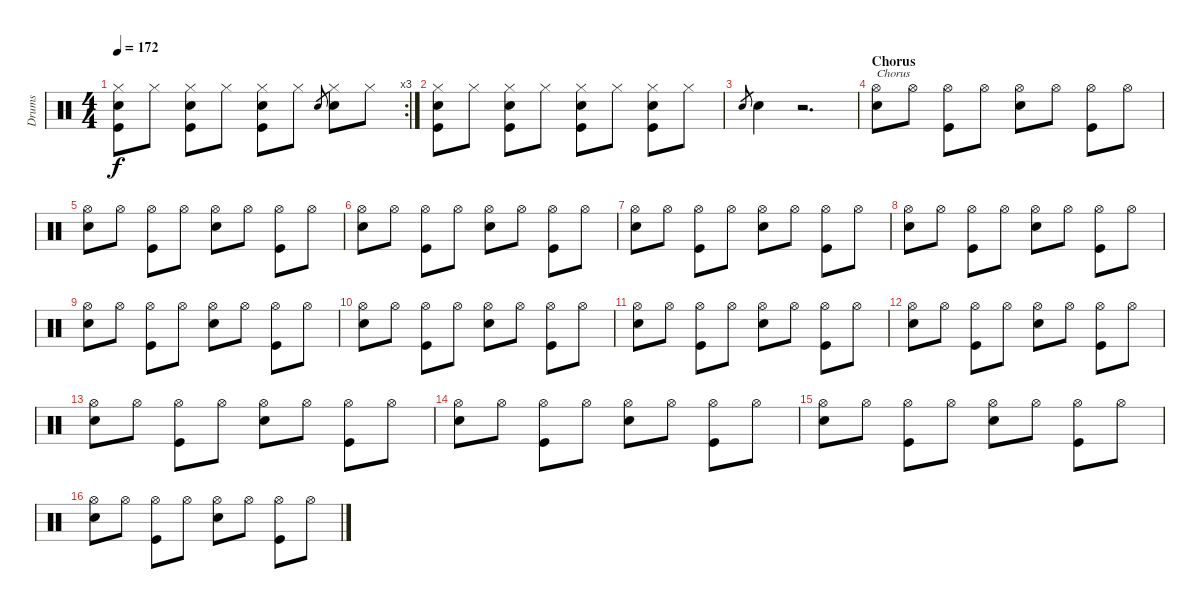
\track ("Drums" "Drums") {instrument percussion}
\staff {score}
\articulation defaults
\rc 3
\ts (4 4)
\tempo 172
\clef neutral
\ks c
("Kick (hit)" "Snare (hit) 2" "Hi-Hat (closed)").8{dy f} "Hi-Hat (closed)".8 ("Kick (hit)" "Snare (hit) 2" "Hi-Hat (closed)").8 "Hi-Hat (closed)".8 ("Kick (hit)" "Snare (hit) 2" "Hi-Hat (closed)").8 "Hi-Hat (closed)".8 "Snare (hit) 2".8{gr} ("Snare (hit) 2" "Hi-Hat (closed)").8 "Hi-Hat (closed)".8 |
("Kick (hit)" "Snare (hit) 2" "Hi-Hat (closed)").8 "Hi-Hat (closed)".8 ("Kick (hit)" "Snare (hit) 2" "Hi-Hat (closed)").8 "Hi-Hat (closed)".8 ("Kick (hit)" "Snare (hit) 2" "Hi-Hat (closed)").8 "Hi-Hat (closed)".8 ("Kick (hit)" "Snare (hit) 2" "Hi-Hat (closed)").8 "Hi-Hat (closed)".8 |
"Snare (hit) 2".8{gr} "Snare (hit) 2".4 r.2{d} |
\section ("" "Chorus")
("Snare (hit) 2" "Hi-Hat (open)").8{txt "Chorus"} "Hi-Hat (open)".8 ("Kick (hit)" "Hi-Hat (open)").8 "Hi-Hat (open)".8 ("Snare (hit) 2" "Hi-Hat (open)").8 "Hi-Hat (open)".8 ("Kick (hit)" "Hi-Hat (open)").8 "Hi-Hat (open)".8 |
("Snare (hit) 2" "Hi-Hat (open)").8 "Hi-Hat (open)".8 ("Kick (hit)" "Hi-Hat (open)").8 "Hi-Hat (open)".8 ("Snare (hit) 2" "Hi-Hat (open)").8 "Hi-Hat (open)".8 ("Kick (hit)" "Hi-Hat (open)").8 "Hi-Hat (open)".8 |
("Snare (hit) 2" "Hi-Hat (open)").8 "Hi-Hat (open)".8 ("Kick (hit)" "Hi-Hat (open)").8 "Hi-Hat (open)".8 ("Snare (hit) 2" "Hi-Hat (open)").8 "Hi-Hat (open)".8 ("Kick (hit)" "Hi-Hat (open)").8 "Hi-Hat (open)".8 |
("Snare (hit) 2" "Hi-Hat (open)").8 "Hi-Hat (open)".8 ("Kick (hit)" "Hi-Hat (open)").8 "Hi-Hat (open)".8 ("Snare (hit) 2" "Hi-Hat (open)").8 "Hi-Hat (open)".8 ("Kick (hit)" "Hi-Hat (open)").8 "Hi-Hat (open)".8 |
("Snare (hit) 2" "Hi-Hat (open)").8 "Hi-Hat (open)".8 ("Kick (hit)" "Hi-Hat (open)").8 "Hi-Hat (open)".8 ("Snare (hit) 2" "Hi-Hat (open)").8 "Hi-Hat (open)".8 ("Kick (hit)" "Hi-Hat (open)").8 "Hi-Hat (open)".8 |
("Snare (hit) 2" "Hi-Hat (open)").8 "Hi-Hat (open)".8 ("Kick (hit)" "Hi-Hat (open)").8 "Hi-Hat (open)".8 ("Snare (hit) 2" "Hi-Hat (open)").8 "Hi-Hat (open)".8 ("Kick (hit)" "Hi-Hat (open)").8 "Hi-Hat (open)".8 |
("Snare (hit) 2" "Hi-Hat (open)").8 "Hi-Hat (open)".8 ("Kick (hit)" "Hi-Hat (open)").8 "Hi-Hat (open)".8 ("Snare (hit) 2" "Hi-Hat (open)").8 "Hi-Hat (open)".8 ("Kick (hit)" "Hi-Hat (open)").8 "Hi-Hat (open)".8 |
("Snare (hit) 2" "Hi-Hat (open)").8 "Hi-Hat (open)".8 ("Kick (hit)" "Hi-Hat (open)").8 "Hi-Hat (open)".8 ("Snare (hit) 2" "Hi-Hat (open)").8 "Hi-Hat (open)".8 ("Kick (hit)" "Hi-Hat (open)").8 "Hi-Hat (open)".8 |
("Snare (hit) 2" "Hi-Hat (open)").8 "Hi-Hat (open)".8 ("Kick (hit)" "Hi-Hat (open)").8 "Hi-Hat (open)".8 ("Snare (hit) 2" "Hi-Hat (open)").8 "Hi-Hat (open)".8 ("Kick (hit)" "Hi-Hat (open)").8 "Hi-Hat (open)".8 |
("Snare (hit) 2" "Hi-Hat (open)").8 "Hi-Hat (open)".8 ("Kick (hit)" "Hi-Hat (open)").8 "Hi-Hat (open)".8 ("Snare (hit) 2" "Hi-Hat (open)").8 "Hi-Hat (open)".8 ("Kick (hit)" "Hi-Hat (open)").8 "Hi-Hat (open)".8 |
("Snare (hit) 2" "Hi-Hat (open)").8 "Hi-Hat (open)".8 ("Kick (hit)" "Hi-Hat (open)").8 "Hi-Hat (open)".8 ("Snare (hit) 2" "Hi-Hat (open)").8 "Hi-Hat (open)".8 ("Kick (hit)" "Hi-Hat (open)").8 "Hi-Hat (open)".8 |
("Snare (hit) 2" "Hi-Hat (open)").8 "Hi-Hat (open)".8 ("Kick (hit)" "Hi-Hat (open)").8 "Hi-Hat (open)".8 ("Snare (hit) 2" "Hi-Hat (open)").8 "Hi-Hat (open)".8 ("Kick (hit)" "Hi-Hat (open)").8 "Hi-Hat (open)".8 |
("Snare (hit) 2" "Hi-Hat (open)").8 "Hi-Hat (open)".8 ("Kick (hit)" "Hi-Hat (open)").8 "Hi-Hat (open)".8 ("Snare (hit) 2" "Hi-Hat (open)").8 "Hi-Hat (open)".8 ("Kick (hit)" "Hi-Hat (open)").8 "Hi-Hat (open)".8
